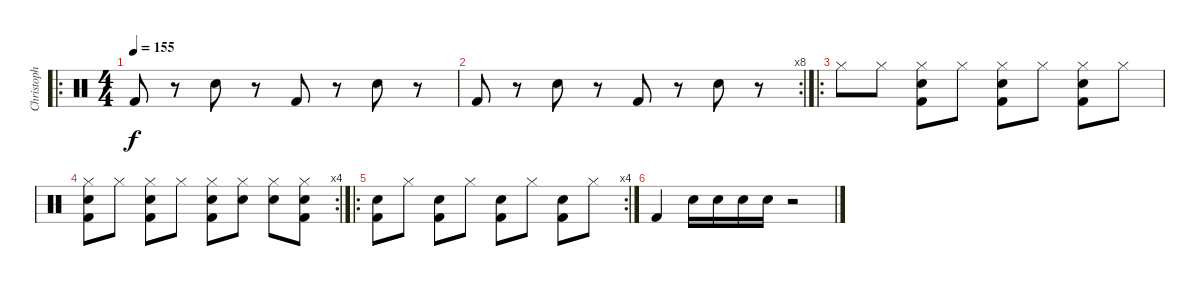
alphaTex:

\track ("Christoph Schneider" "Christoph ") {instrument percussion}
\staff {score}
\articulation defaults
\ro
\ts (4 4)
\tempo 155
\clef neutral
\ks c "Kick (hit) 2".8{dy f}
r.8 "Snare (hit) 2".8 r.8 "Kick (hit) 2".8 r.8 "Snare (hit) 2".8 r.8 |
\rc 8 "Kick (hit) 2".8
r.8 "Snare (hit) 2".8 r.8 "Kick (hit) 2".8 r.8 "Snare (hit) 2".8 r.8 |
\ro "Hi-Hat (closed)".8 "Hi-Hat (closed)".8
("Hi-Hat (closed)" "Snare (hit) 2" "Kick (hit) 2").8 "Hi-Hat (closed)".8 ("Hi-Hat (closed)" "Snare (hit) 2" "Kick (hit) 2").8 "Hi-Hat (closed)".8 ("Hi-Hat (closed)" "Snare (hit) 2" "Kick (hit) 2").8 "Hi-Hat (closed)".8 |
\rc 4
("Hi-Hat (closed)" "Snare (hit) 2" "Kick (hit) 2").8 "Hi-Hat (closed)".8 ("Hi-Hat (closed)" "Snare (hit) 2" "Kick (hit) 2").8 "Hi-Hat (closed)".8 ("Hi-Hat (closed)" "Snare (hit) 2" "Kick (hit) 2").8 ("Hi-Hat (closed)" "Snare (hit) 2").8 ("Hi-Hat (closed)" "Snare (hit) 2").8 ("Hi-Hat (closed)" "Snare (hit) 2" "Kick (hit) 2").8 |
\ro
\rc 4
("Snare (hit) 2" "Kick (hit) 2").8 "Hi-Hat (closed)".8 ("Snare (hit) 2" "Kick (hit) 2").8 "Hi-Hat (closed)".8 ("Snare (hit) 2" "Kick (hit) 2").8 "Hi-Hat (closed)".8 ("Snare (hit) 2" "Kick (hit) 2").8 "Hi-Hat (closed)".8 |
"Kick (hit) 2".4 "Snare (hit) 2".16 "Snare (hit) 2".16 "Snare (hit) 2".16 "Snare (hit) 2".16 r.2
